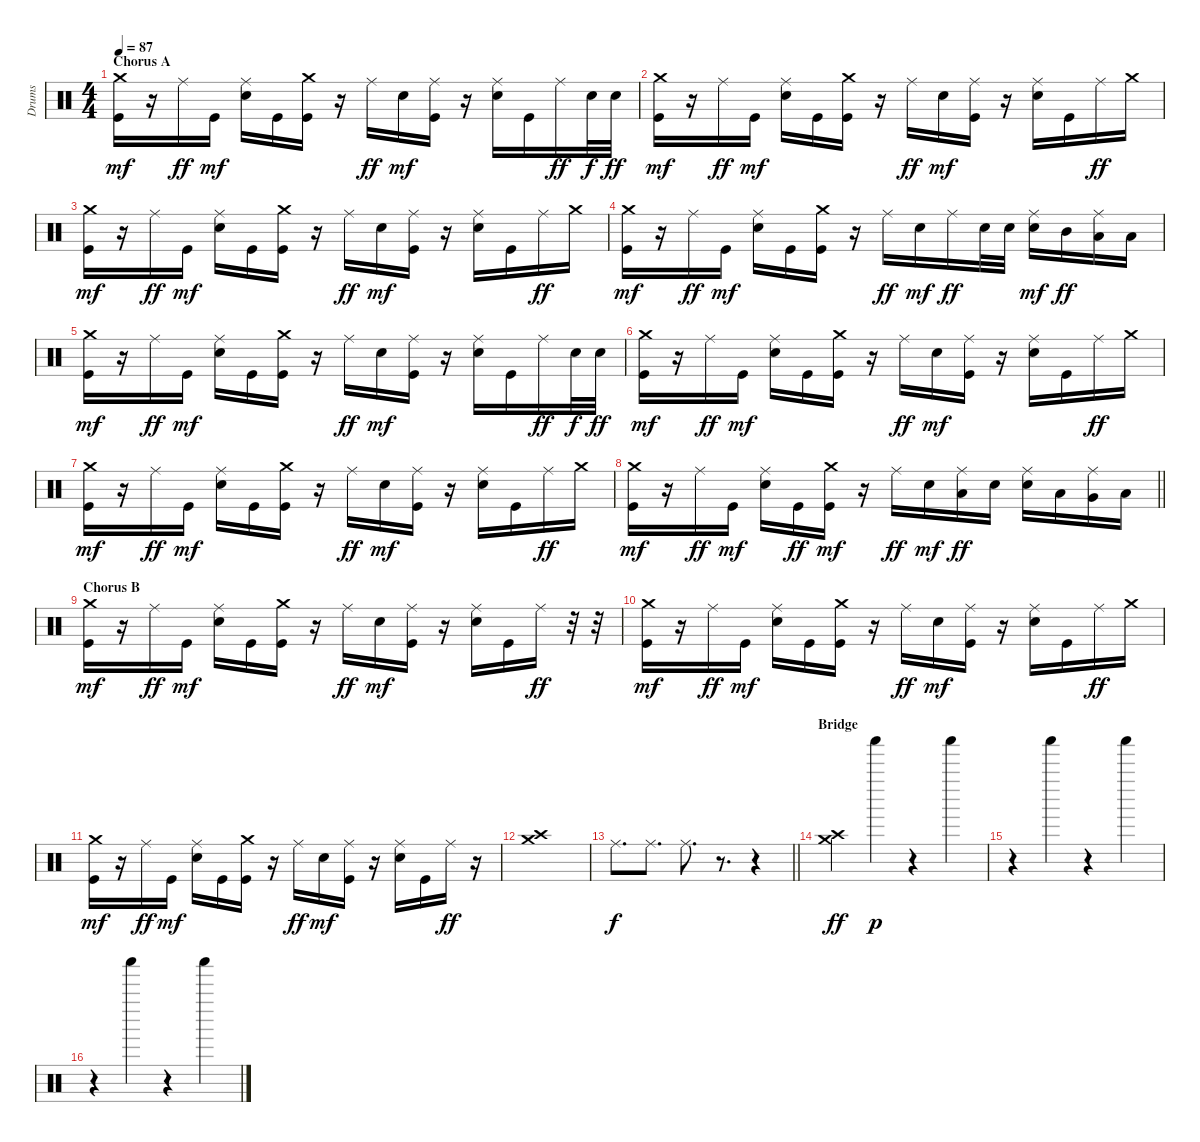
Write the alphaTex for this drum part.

\track ("Drums" "Drums") {instrument percussion}
\staff {score}
\articulation defaults
\ts (4 4)
\section ("" "Chorus A")
\tempo 87
\clef neutral
\ks c
("Crash medium (hit)" "Kick (hit)").16{dy mf} r.16 "Ride (middle)".16{dy ff} "Kick (hit)".16{dy mf} ("Ride (middle)" "Electric Snare (hit)").16 "Kick (hit)".16 ("Crash medium (hit)" "Kick (hit)").16 r.16 "Ride (middle)".16{dy ff} "Electric Snare (hit)".16{dy mf} ("Ride (middle)" "Kick (hit)").16 r.16 ("Ride (middle)" "Electric Snare (hit)").16 "Kick (hit)".16 "Ride (middle)".16{dy ff} "Electric Snare (hit)".32{dy f} "Electric Snare (hit)".32{dy ff} |
("Crash medium (hit)" "Kick (hit)").16{dy mf} r.16 "Ride (middle)".16{dy ff} "Kick (hit)".16{dy mf} ("Ride (middle)" "Electric Snare (hit)").16 "Kick (hit)".16 ("Crash medium (hit)" "Kick (hit)").16 r.16 "Ride (middle)".16{dy ff} "Electric Snare (hit)".16{dy mf} ("Ride (middle)" "Kick (hit)").16 r.16 ("Ride (middle)" "Electric Snare (hit)").16 "Kick (hit)".16 "Ride (middle)".16{dy ff} "Crash medium (hit)".16 |
("Crash medium (hit)" "Kick (hit)").16{dy mf} r.16 "Ride (middle)".16{dy ff} "Kick (hit)".16{dy mf} ("Ride (middle)" "Electric Snare (hit)").16 "Kick (hit)".16 ("Crash medium (hit)" "Kick (hit)").16 r.16 "Ride (middle)".16{dy ff} "Electric Snare (hit)".16{dy mf} ("Ride (middle)" "Kick (hit)").16 r.16 ("Ride (middle)" "Electric Snare (hit)").16 "Kick (hit)".16 "Ride (middle)".16{dy ff} "Crash medium (hit)".16 |
("Crash medium (hit)" "Kick (hit)").16{dy mf} r.16 "Ride (middle)".16{dy ff} "Kick (hit)".16{dy mf} ("Ride (middle)" "Electric Snare (hit)").16 "Kick (hit)".16 ("Crash medium (hit)" "Kick (hit)").16 r.16 "Ride (middle)".16{dy ff} "Electric Snare (hit)".16{dy mf} "Ride (middle)".16{dy ff} "Electric Snare (hit)".32 "Electric Snare (hit)".32 ("Ride (middle)" "Electric Snare (hit)").16{dy mf} "Mid Tom (hit)".16{dy ff} ("Ride (middle)" "Low Tom (hit)").16 "Low Floor Tom (hit)".16 |
("Crash medium (hit)" "Kick (hit)").16{dy mf} r.16 "Ride (middle)".16{dy ff} "Kick (hit)".16{dy mf} ("Ride (middle)" "Electric Snare (hit)").16 "Kick (hit)".16 ("Crash medium (hit)" "Kick (hit)").16 r.16 "Ride (middle)".16{dy ff} "Electric Snare (hit)".16{dy mf} ("Ride (middle)" "Kick (hit)").16 r.16 ("Ride (middle)" "Electric Snare (hit)").16 "Kick (hit)".16 "Ride (middle)".16{dy ff} "Electric Snare (hit)".32{dy f} "Electric Snare (hit)".32{dy ff} |
("Crash medium (hit)" "Kick (hit)").16{dy mf} r.16 "Ride (middle)".16{dy ff} "Kick (hit)".16{dy mf} ("Ride (middle)" "Electric Snare (hit)").16 "Kick (hit)".16 ("Crash medium (hit)" "Kick (hit)").16 r.16 "Ride (middle)".16{dy ff} "Electric Snare (hit)".16{dy mf} ("Ride (middle)" "Kick (hit)").16 r.16 ("Ride (middle)" "Electric Snare (hit)").16 "Kick (hit)".16 "Ride (middle)".16{dy ff} "Crash medium (hit)".16 |
("Crash medium (hit)" "Kick (hit)").16{dy mf} r.16 "Ride (middle)".16{dy ff} "Kick (hit)".16{dy mf} ("Ride (middle)" "Electric Snare (hit)").16 "Kick (hit)".16 ("Crash medium (hit)" "Kick (hit)").16 r.16 "Ride (middle)".16{dy ff} "Electric Snare (hit)".16{dy mf} ("Ride (middle)" "Kick (hit)").16 r.16 ("Ride (middle)" "Electric Snare (hit)").16 "Kick (hit)".16 "Ride (middle)".16{dy ff} "Crash medium (hit)".16 |
\barLineRight lightlight
("Crash medium (hit)" "Kick (hit)").16{dy mf} r.16 "Ride (middle)".16{dy ff} "Kick (hit)".16{dy mf} ("Ride (middle)" "Electric Snare (hit)").16 "Kick (hit)".16{dy ff} ("Crash medium (hit)" "Kick (hit)").16{dy mf} r.16 "Ride (middle)".16{dy ff} "Electric Snare (hit)".16{dy mf} ("Ride (middle)" "Low Tom (hit)").16{dy ff} "Electric Snare (hit)".16 ("Ride (middle)" "Electric Snare (hit)").16 "Low Tom (hit)".16 ("Ride (middle)" "Very Low Tom (hit)").16 "Low Floor Tom (hit)".16 |
\section ("" "Chorus B")
("Crash medium (hit)" "Kick (hit)").16{dy mf} r.16 "Ride (middle)".16{dy ff} "Kick (hit)".16{dy mf} ("Ride (middle)" "Electric Snare (hit)").16 "Kick (hit)".16 ("Crash medium (hit)" "Kick (hit)").16 r.16 "Ride (middle)".16{dy ff} "Electric Snare (hit)".16{dy mf} ("Ride (middle)" "Kick (hit)").16 r.16 ("Ride (middle)" "Electric Snare (hit)").16 "Kick (hit)".16 "Ride (middle)".16{dy ff} r.32 r.32 |
("Crash medium (hit)" "Kick (hit)").16{dy mf} r.16 "Ride (middle)".16{dy ff} "Kick (hit)".16{dy mf} ("Ride (middle)" "Electric Snare (hit)").16 "Kick (hit)".16 ("Crash medium (hit)" "Kick (hit)").16 r.16 "Ride (middle)".16{dy ff} "Electric Snare (hit)".16{dy mf} ("Ride (middle)" "Kick (hit)").16 r.16 ("Ride (middle)" "Electric Snare (hit)").16 "Kick (hit)".16 "Ride (middle)".16{dy ff} "Crash medium (hit)".16 |
("Crash medium (hit)" "Kick (hit)").16{dy mf} r.16 "Ride (middle)".16{dy ff} "Kick (hit)".16{dy mf} ("Ride (middle)" "Electric Snare (hit)").16 "Kick (hit)".16 ("Crash medium (hit)" "Kick (hit)").16 r.16 "Ride (middle)".16{dy ff} "Electric Snare (hit)".16{dy mf} ("Ride (middle)" "Kick (hit)").16 r.16 ("Ride (middle)" "Electric Snare (hit)").16 "Kick (hit)".16 "Ride (middle)".16{dy ff} r.16 |
("Crash high (hit)" "Crash medium (hit)").1 |
\barLineRight lightlight "Ride (middle)".8{d dy f} "Ride (middle)".8{d} "Ride (middle)".8{d}
r.8{d} r.4 |
\section ("" "Bridge")
("Crash high (hit)" "Crash medium (hit)").4{dy ff} "Shaker (hit)".4{dy p} r.4 "Shaker (hit)".4 |
r.4 "Shaker (hit)".4 r.4 "Shaker (hit)".4 |
r.4 "Shaker (hit)".4 r.4 "Shaker (hit)".4
